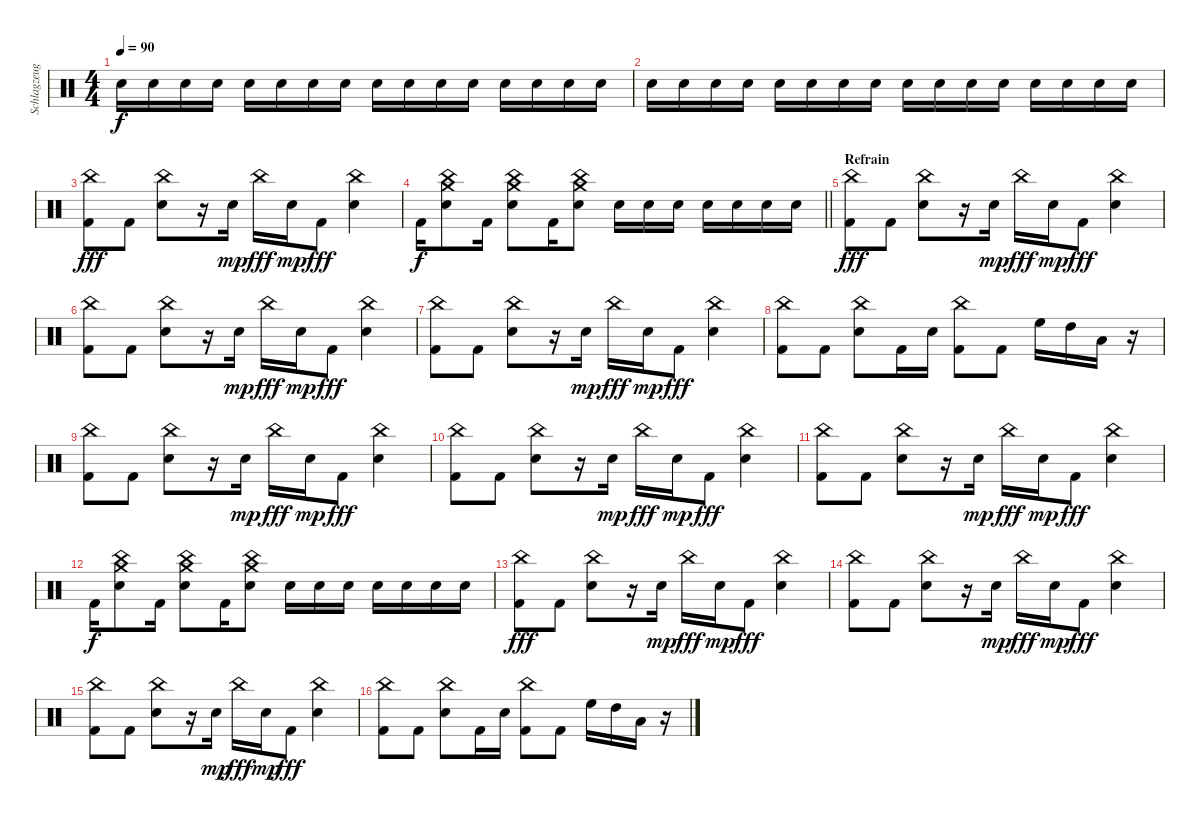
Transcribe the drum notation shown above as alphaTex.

\track ("Schlagzeug" "Schlagzeug") {instrument percussion}
\staff {score}
\articulation defaults
\ts (4 4)
\tempo 90
\clef neutral
\ks c "Snare (hit) 2".16{dy f volume 6} "Snare (hit) 2".16 "Snare (hit) 2".16 "Snare (hit) 2".16 "Snare (hit) 2".16{volume 8} "Snare (hit) 2".16 "Snare (hit) 2".16 "Snare (hit) 2".16 "Snare (hit) 2".16{volume 10} "Snare (hit) 2".16 "Snare (hit) 2".16 "Snare (hit) 2".16{volume 12} "Snare (hit) 2".16 "Snare (hit) 2".16 "Snare (hit) 2".16 "Snare (hit) 2".16
|
"Snare (hit) 2".16 "Snare (hit) 2".16 "Snare (hit) 2".16 "Snare (hit) 2".16 "Snare (hit) 2".16 "Snare (hit) 2".16 "Snare (hit) 2".16 "Snare (hit) 2".16 "Snare (hit) 2".16{volume 15} "Snare (hit) 2".16 "Snare (hit) 2".16 "Snare (hit) 2".16 "Snare (hit) 2".16 "Snare (hit) 2".16 "Snare (hit) 2".16 "Snare (hit) 2".16 |
("China (hit)" "Kick (hit) 2").8{dy fff} "Kick (hit) 2".8 ("China (hit)" "Snare (hit) 2").8 r.16 "Snare (hit) 2".16{dy mp} "China (hit)".16{dy fff} "Snare (hit) 2".16{dy mp} "Kick (hit) 2".8{dy fff} ("China (hit)" "Snare (hit) 2").4 |
\barLineRight lightlight "Kick (hit) 2".16{dy f}
("China (hit)" "Crash medium (hit)" "Snare (hit) 2").8 "Kick (hit) 2".16 ("China (hit)" "Crash medium (hit)" "Snare (hit) 2").8 "Kick (hit) 2".16 ("China (hit)" "Crash medium (hit)" "Snare (hit) 2").8 "Snare (hit) 2".16 "Snare (hit) 2".16 "Snare (hit) 2".16 "Snare (hit) 2".16 "Snare (hit) 2".16 "Snare (hit) 2".16 "Snare (hit) 2".16 |
\section ("" "Refrain")
("China (hit)" "Kick (hit) 2").8{dy fff} "Kick (hit) 2".8 ("China (hit)" "Snare (hit) 2").8 r.16 "Snare (hit) 2".16{dy mp} "China (hit)".16{dy fff} "Snare (hit) 2".16{dy mp} "Kick (hit) 2".8{dy fff} ("China (hit)" "Snare (hit) 2").4 |
("China (hit)" "Kick (hit) 2").8 "Kick (hit) 2".8 ("China (hit)" "Snare (hit) 2").8 r.16 "Snare (hit) 2".16{dy mp} "China (hit)".16{dy fff} "Snare (hit) 2".16{dy mp} "Kick (hit) 2".8{dy fff} ("China (hit)" "Snare (hit) 2").4 |
("China (hit)" "Kick (hit) 2").8 "Kick (hit) 2".8 ("China (hit)" "Snare (hit) 2").8 r.16 "Snare (hit) 2".16{dy mp} "China (hit)".16{dy fff} "Snare (hit) 2".16{dy mp} "Kick (hit) 2".8{dy fff} ("China (hit)" "Snare (hit) 2").4 |
("China (hit)" "Kick (hit) 2").8 "Kick (hit) 2".8 ("China (hit)" "Snare (hit) 2").8 "Kick (hit) 2".16 "Snare (hit) 2".16 ("China (hit)" "Kick (hit) 2").8 "Kick (hit) 2".8 "High Floor Tom (hit)".16 "High Tom (hit)".16 "Low Tom (hit)".16 r.16 |
("China (hit)" "Kick (hit) 2").8 "Kick (hit) 2".8 ("China (hit)" "Snare (hit) 2").8 r.16 "Snare (hit) 2".16{dy mp} "China (hit)".16{dy fff} "Snare (hit) 2".16{dy mp} "Kick (hit) 2".8{dy fff} ("China (hit)" "Snare (hit) 2").4 |
("China (hit)" "Kick (hit) 2").8 "Kick (hit) 2".8 ("China (hit)" "Snare (hit) 2").8 r.16 "Snare (hit) 2".16{dy mp} "China (hit)".16{dy fff} "Snare (hit) 2".16{dy mp} "Kick (hit) 2".8{dy fff} ("China (hit)" "Snare (hit) 2").4 |
("China (hit)" "Kick (hit) 2").8 "Kick (hit) 2".8 ("China (hit)" "Snare (hit) 2").8 r.16 "Snare (hit) 2".16{dy mp} "China (hit)".16{dy fff} "Snare (hit) 2".16{dy mp} "Kick (hit) 2".8{dy fff} ("China (hit)" "Snare (hit) 2").4 |
"Kick (hit) 2".16{dy f} ("China (hit)" "Crash medium (hit)" "Snare (hit) 2").8 "Kick (hit) 2".16 ("China (hit)" "Crash medium (hit)" "Snare (hit) 2").8 "Kick (hit) 2".16 ("China (hit)" "Crash medium (hit)" "Snare (hit) 2").8 "Snare (hit) 2".16 "Snare (hit) 2".16 "Snare (hit) 2".16 "Snare (hit) 2".16 "Snare (hit) 2".16 "Snare (hit) 2".16 "Snare (hit) 2".16 |
("China (hit)" "Kick (hit) 2").8{dy fff} "Kick (hit) 2".8 ("China (hit)" "Snare (hit) 2").8 r.16 "Snare (hit) 2".16{dy mp} "China (hit)".16{dy fff} "Snare (hit) 2".16{dy mp} "Kick (hit) 2".8{dy fff} ("China (hit)" "Snare (hit) 2").4 |
("China (hit)" "Kick (hit) 2").8 "Kick (hit) 2".8 ("China (hit)" "Snare (hit) 2").8 r.16 "Snare (hit) 2".16{dy mp} "China (hit)".16{dy fff} "Snare (hit) 2".16{dy mp} "Kick (hit) 2".8{dy fff} ("China (hit)" "Snare (hit) 2").4 |
("China (hit)" "Kick (hit) 2").8 "Kick (hit) 2".8 ("China (hit)" "Snare (hit) 2").8 r.16 "Snare (hit) 2".16{dy mp} "China (hit)".16{dy fff} "Snare (hit) 2".16{dy mp} "Kick (hit) 2".8{dy fff} ("China (hit)" "Snare (hit) 2").4 |
("China (hit)" "Kick (hit) 2").8 "Kick (hit) 2".8 ("China (hit)" "Snare (hit) 2").8 "Kick (hit) 2".16 "Snare (hit) 2".16 ("China (hit)" "Kick (hit) 2").8 "Kick (hit) 2".8 "High Floor Tom (hit)".16 "High Tom (hit)".16 "Low Tom (hit)".16 r.16
